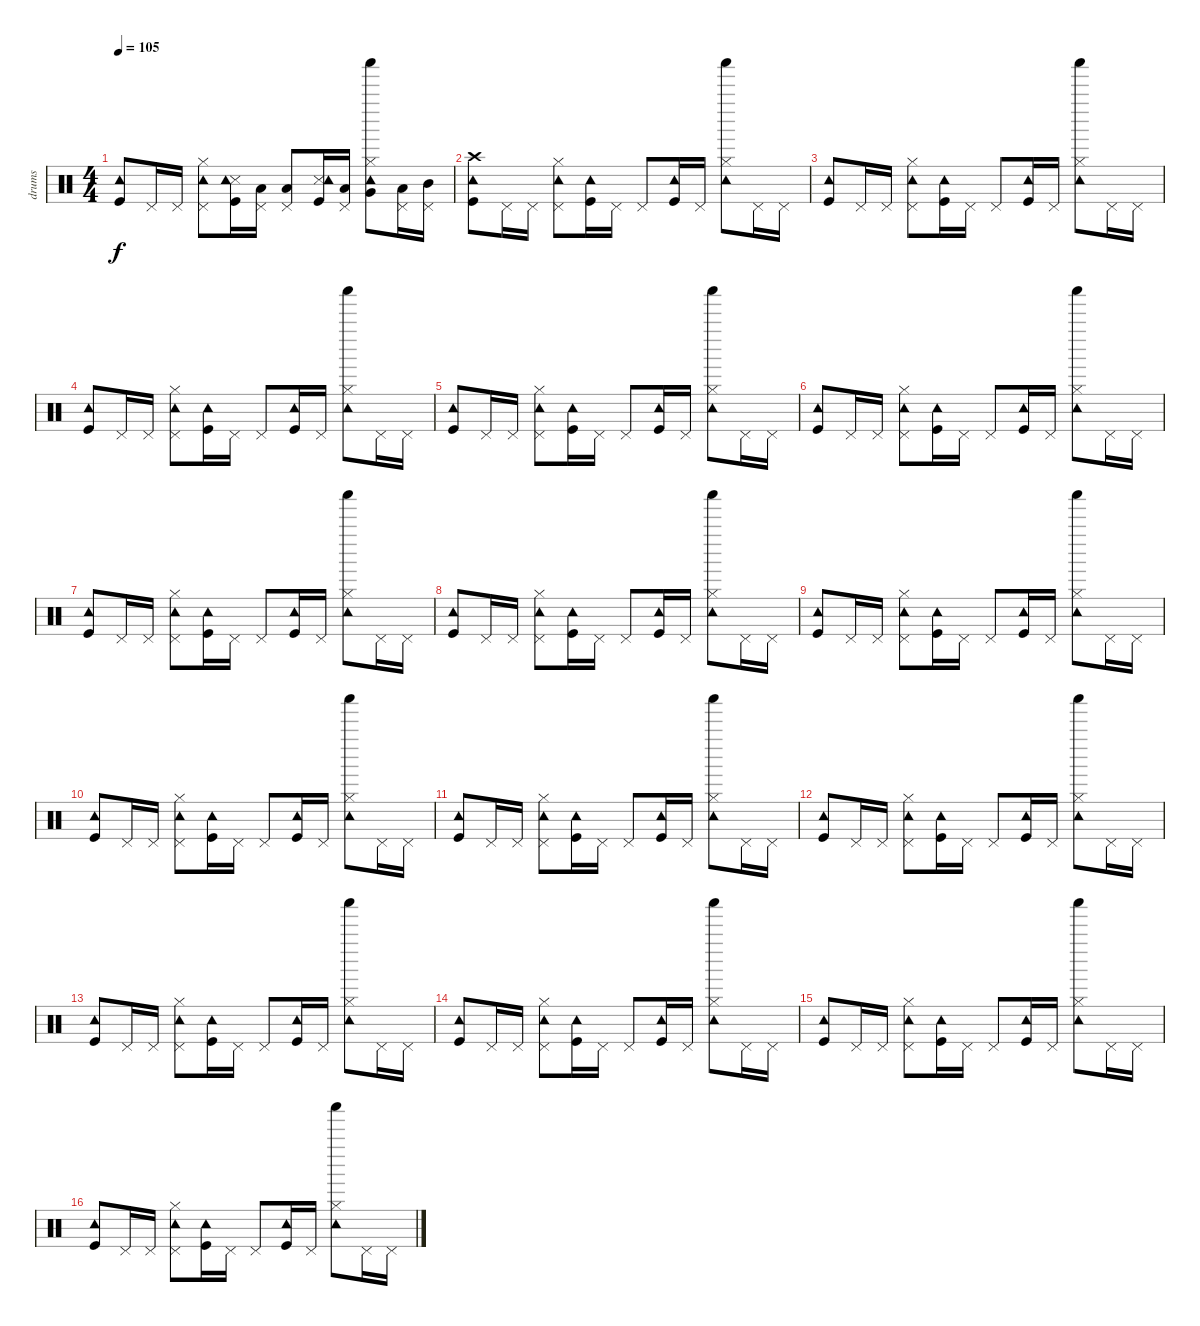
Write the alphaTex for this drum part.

\track ("drums" "drums") {instrument percussion}
\staff {score}
\articulation defaults
\ts (4 4)
\tempo 105
\clef neutral
\ks c
("Kick (hit)" "Tambourine (hit)").8{dy f} "Pedal Hi-Hat (hit)".16 "Pedal Hi-Hat (hit)".16 ("Tambourine (hit)" "Pedal Hi-Hat (hit)" "Hi-Hat (closed)").8 ("Snare (side stick) 3" "Kick (hit)" "Tambourine (hit)").16 ("Low Floor Tom (hit)" "Pedal Hi-Hat (hit)").16 ("Low Floor Tom (hit)" "Pedal Hi-Hat (hit)").8 ("Snare (side stick) 3" "Kick (hit)" "Tambourine (hit)").16 ("Low Floor Tom (hit)" "Pedal Hi-Hat (hit)").16 ("Very Low Tom (hit)" "Tambourine (hit)" "Shaker (hit)" "Hi-Hat (closed)").8 ("Low Tom (hit)" "Pedal Hi-Hat (hit)").16 ("Mid Tom (hit)" "Pedal Hi-Hat (hit)").16 |
("Crash high (hit)" "Kick (hit)" "Tambourine (hit)").8 "Pedal Hi-Hat (hit)".16 "Pedal Hi-Hat (hit)".16 ("Tambourine (hit)" "Pedal Hi-Hat (hit)" "Hi-Hat (closed)").8 ("Kick (hit)" "Tambourine (hit)").16 "Pedal Hi-Hat (hit)".16 "Pedal Hi-Hat (hit)".8 ("Kick (hit)" "Tambourine (hit)").16 "Pedal Hi-Hat (hit)".16 ("Tambourine (hit)" "Shaker (hit)" "Hi-Hat (closed)").8 "Pedal Hi-Hat (hit)".16 "Pedal Hi-Hat (hit)".16 |
("Kick (hit)" "Tambourine (hit)").8 "Pedal Hi-Hat (hit)".16 "Pedal Hi-Hat (hit)".16 ("Tambourine (hit)" "Pedal Hi-Hat (hit)" "Hi-Hat (closed)").8 ("Kick (hit)" "Tambourine (hit)").16 "Pedal Hi-Hat (hit)".16 "Pedal Hi-Hat (hit)".8 ("Kick (hit)" "Tambourine (hit)").16 "Pedal Hi-Hat (hit)".16 ("Tambourine (hit)" "Shaker (hit)" "Hi-Hat (closed)").8 "Pedal Hi-Hat (hit)".16 "Pedal Hi-Hat (hit)".16 |
("Kick (hit)" "Tambourine (hit)").8 "Pedal Hi-Hat (hit)".16 "Pedal Hi-Hat (hit)".16 ("Tambourine (hit)" "Pedal Hi-Hat (hit)" "Hi-Hat (closed)").8 ("Kick (hit)" "Tambourine (hit)").16 "Pedal Hi-Hat (hit)".16 "Pedal Hi-Hat (hit)".8 ("Kick (hit)" "Tambourine (hit)").16 "Pedal Hi-Hat (hit)".16 ("Tambourine (hit)" "Shaker (hit)" "Hi-Hat (closed)").8 "Pedal Hi-Hat (hit)".16 "Pedal Hi-Hat (hit)".16 |
("Kick (hit)" "Tambourine (hit)").8 "Pedal Hi-Hat (hit)".16 "Pedal Hi-Hat (hit)".16 ("Tambourine (hit)" "Pedal Hi-Hat (hit)" "Hi-Hat (closed)").8 ("Kick (hit)" "Tambourine (hit)").16 "Pedal Hi-Hat (hit)".16 "Pedal Hi-Hat (hit)".8 ("Kick (hit)" "Tambourine (hit)").16 "Pedal Hi-Hat (hit)".16 ("Tambourine (hit)" "Shaker (hit)" "Hi-Hat (closed)").8 "Pedal Hi-Hat (hit)".16 "Pedal Hi-Hat (hit)".16 |
("Kick (hit)" "Tambourine (hit)").8 "Pedal Hi-Hat (hit)".16 "Pedal Hi-Hat (hit)".16 ("Tambourine (hit)" "Pedal Hi-Hat (hit)" "Hi-Hat (closed)").8 ("Kick (hit)" "Tambourine (hit)").16 "Pedal Hi-Hat (hit)".16 "Pedal Hi-Hat (hit)".8 ("Kick (hit)" "Tambourine (hit)").16 "Pedal Hi-Hat (hit)".16 ("Tambourine (hit)" "Shaker (hit)" "Hi-Hat (closed)").8 "Pedal Hi-Hat (hit)".16 "Pedal Hi-Hat (hit)".16 |
("Kick (hit)" "Tambourine (hit)").8 "Pedal Hi-Hat (hit)".16 "Pedal Hi-Hat (hit)".16 ("Tambourine (hit)" "Pedal Hi-Hat (hit)" "Hi-Hat (closed)").8 ("Kick (hit)" "Tambourine (hit)").16 "Pedal Hi-Hat (hit)".16 "Pedal Hi-Hat (hit)".8 ("Kick (hit)" "Tambourine (hit)").16 "Pedal Hi-Hat (hit)".16 ("Tambourine (hit)" "Shaker (hit)" "Hi-Hat (closed)").8 "Pedal Hi-Hat (hit)".16 "Pedal Hi-Hat (hit)".16 |
("Kick (hit)" "Tambourine (hit)").8 "Pedal Hi-Hat (hit)".16 "Pedal Hi-Hat (hit)".16 ("Tambourine (hit)" "Pedal Hi-Hat (hit)" "Hi-Hat (closed)").8 ("Kick (hit)" "Tambourine (hit)").16 "Pedal Hi-Hat (hit)".16 "Pedal Hi-Hat (hit)".8 ("Kick (hit)" "Tambourine (hit)").16 "Pedal Hi-Hat (hit)".16 ("Tambourine (hit)" "Shaker (hit)" "Hi-Hat (closed)").8 "Pedal Hi-Hat (hit)".16 "Pedal Hi-Hat (hit)".16 |
("Kick (hit)" "Tambourine (hit)").8 "Pedal Hi-Hat (hit)".16 "Pedal Hi-Hat (hit)".16 ("Tambourine (hit)" "Pedal Hi-Hat (hit)" "Hi-Hat (closed)").8 ("Kick (hit)" "Tambourine (hit)").16 "Pedal Hi-Hat (hit)".16 "Pedal Hi-Hat (hit)".8 ("Kick (hit)" "Tambourine (hit)").16 "Pedal Hi-Hat (hit)".16 ("Tambourine (hit)" "Shaker (hit)" "Hi-Hat (closed)").8 "Pedal Hi-Hat (hit)".16 "Pedal Hi-Hat (hit)".16 |
("Kick (hit)" "Tambourine (hit)").8 "Pedal Hi-Hat (hit)".16 "Pedal Hi-Hat (hit)".16 ("Tambourine (hit)" "Pedal Hi-Hat (hit)" "Hi-Hat (closed)").8 ("Kick (hit)" "Tambourine (hit)").16 "Pedal Hi-Hat (hit)".16 "Pedal Hi-Hat (hit)".8 ("Kick (hit)" "Tambourine (hit)").16 "Pedal Hi-Hat (hit)".16 ("Tambourine (hit)" "Shaker (hit)" "Hi-Hat (closed)").8 "Pedal Hi-Hat (hit)".16 "Pedal Hi-Hat (hit)".16 |
("Kick (hit)" "Tambourine (hit)").8 "Pedal Hi-Hat (hit)".16 "Pedal Hi-Hat (hit)".16 ("Tambourine (hit)" "Pedal Hi-Hat (hit)" "Hi-Hat (closed)").8 ("Kick (hit)" "Tambourine (hit)").16 "Pedal Hi-Hat (hit)".16 "Pedal Hi-Hat (hit)".8 ("Kick (hit)" "Tambourine (hit)").16 "Pedal Hi-Hat (hit)".16 ("Tambourine (hit)" "Shaker (hit)" "Hi-Hat (closed)").8 "Pedal Hi-Hat (hit)".16 "Pedal Hi-Hat (hit)".16 |
("Kick (hit)" "Tambourine (hit)").8 "Pedal Hi-Hat (hit)".16 "Pedal Hi-Hat (hit)".16 ("Tambourine (hit)" "Pedal Hi-Hat (hit)" "Hi-Hat (closed)").8 ("Kick (hit)" "Tambourine (hit)").16 "Pedal Hi-Hat (hit)".16 "Pedal Hi-Hat (hit)".8 ("Kick (hit)" "Tambourine (hit)").16 "Pedal Hi-Hat (hit)".16 ("Tambourine (hit)" "Shaker (hit)" "Hi-Hat (closed)").8 "Pedal Hi-Hat (hit)".16 "Pedal Hi-Hat (hit)".16 |
("Kick (hit)" "Tambourine (hit)").8 "Pedal Hi-Hat (hit)".16 "Pedal Hi-Hat (hit)".16 ("Tambourine (hit)" "Pedal Hi-Hat (hit)" "Hi-Hat (closed)").8 ("Kick (hit)" "Tambourine (hit)").16 "Pedal Hi-Hat (hit)".16 "Pedal Hi-Hat (hit)".8 ("Kick (hit)" "Tambourine (hit)").16 "Pedal Hi-Hat (hit)".16 ("Tambourine (hit)" "Shaker (hit)" "Hi-Hat (closed)").8 "Pedal Hi-Hat (hit)".16 "Pedal Hi-Hat (hit)".16 |
("Kick (hit)" "Tambourine (hit)").8 "Pedal Hi-Hat (hit)".16 "Pedal Hi-Hat (hit)".16 ("Tambourine (hit)" "Pedal Hi-Hat (hit)" "Hi-Hat (closed)").8 ("Kick (hit)" "Tambourine (hit)").16 "Pedal Hi-Hat (hit)".16 "Pedal Hi-Hat (hit)".8 ("Kick (hit)" "Tambourine (hit)").16 "Pedal Hi-Hat (hit)".16 ("Tambourine (hit)" "Shaker (hit)" "Hi-Hat (closed)").8 "Pedal Hi-Hat (hit)".16 "Pedal Hi-Hat (hit)".16 |
("Kick (hit)" "Tambourine (hit)").8 "Pedal Hi-Hat (hit)".16 "Pedal Hi-Hat (hit)".16 ("Tambourine (hit)" "Pedal Hi-Hat (hit)" "Hi-Hat (closed)").8 ("Kick (hit)" "Tambourine (hit)").16 "Pedal Hi-Hat (hit)".16 "Pedal Hi-Hat (hit)".8 ("Kick (hit)" "Tambourine (hit)").16 "Pedal Hi-Hat (hit)".16 ("Tambourine (hit)" "Shaker (hit)" "Hi-Hat (closed)").8 "Pedal Hi-Hat (hit)".16 "Pedal Hi-Hat (hit)".16 |
("Kick (hit)" "Tambourine (hit)").8 "Pedal Hi-Hat (hit)".16 "Pedal Hi-Hat (hit)".16 ("Tambourine (hit)" "Pedal Hi-Hat (hit)" "Hi-Hat (closed)").8 ("Kick (hit)" "Tambourine (hit)").16 "Pedal Hi-Hat (hit)".16 "Pedal Hi-Hat (hit)".8 ("Kick (hit)" "Tambourine (hit)").16 "Pedal Hi-Hat (hit)".16 ("Tambourine (hit)" "Shaker (hit)" "Hi-Hat (closed)").8 "Pedal Hi-Hat (hit)".16 "Pedal Hi-Hat (hit)".16
